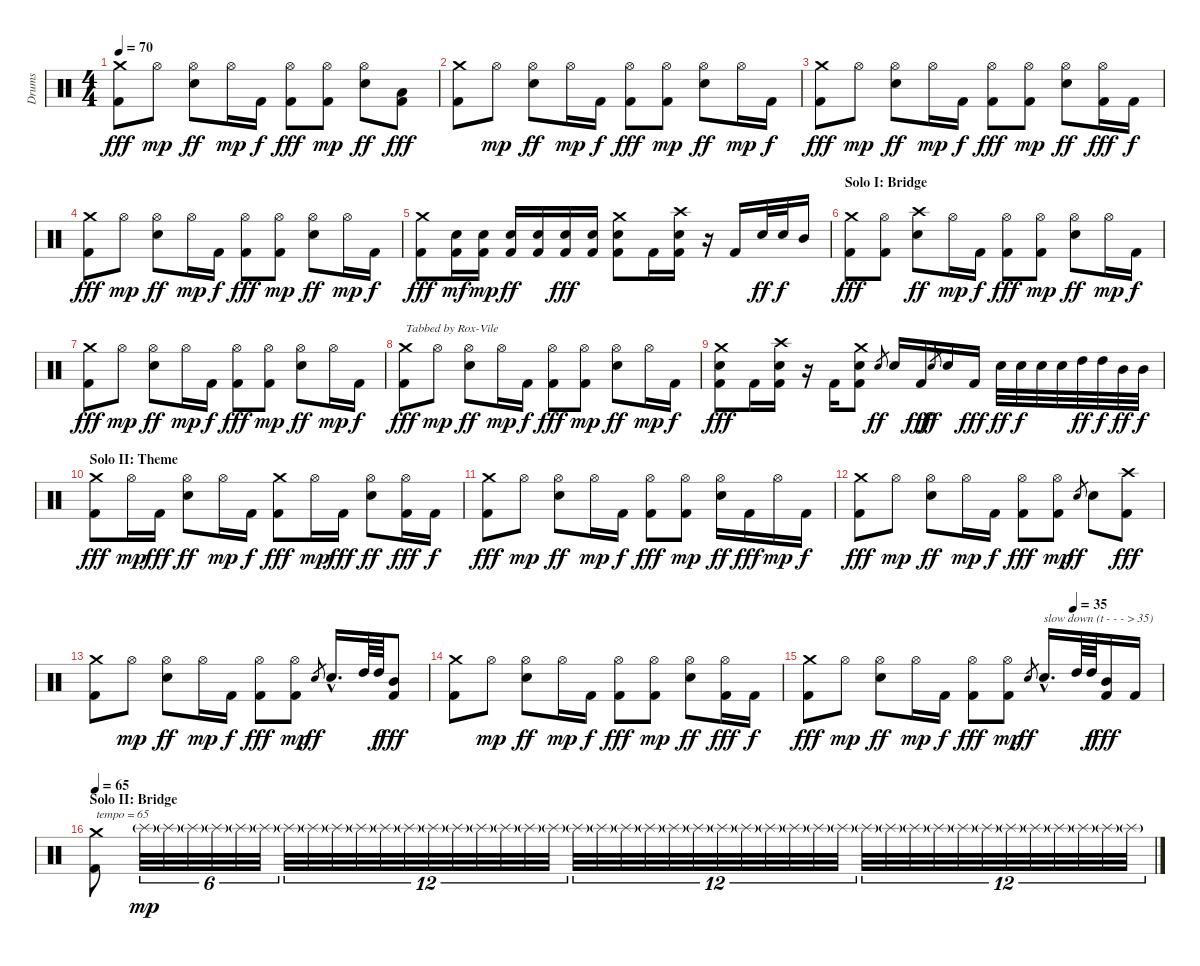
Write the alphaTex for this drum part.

\track ("Drums" "Drums") {instrument percussion}
\staff {score}
\articulation defaults
\ts (4 4)
\tempo 70
\clef neutral
\ks c
("Crash medium (hit)" "Kick (hit) 2").8{dy fff} "Hi-Hat (open)".8{dy mp} ("Hi-Hat (open)" "Snare (hit) 2").8{dy ff} "Hi-Hat (open)".16{dy mp} "Kick (hit) 2".16{dy f} ("Hi-Hat (open)" "Kick (hit) 2").8{dy fff} ("Hi-Hat (open)" "Kick (hit) 2").8{dy mp} ("Hi-Hat (open)" "Snare (hit) 2").8{dy ff} ("Low Tom (hit)" "Kick (hit) 2").8{dy fff} |
("Crash medium (hit)" "Kick (hit) 2").8 "Hi-Hat (open)".8{dy mp} ("Hi-Hat (open)" "Snare (hit) 2").8{dy ff} "Hi-Hat (open)".16{dy mp} "Kick (hit) 2".16{dy f} ("Hi-Hat (open)" "Kick (hit) 2").8{dy fff} ("Hi-Hat (open)" "Kick (hit) 2").8{dy mp} ("Hi-Hat (open)" "Snare (hit) 2").8{dy ff} "Hi-Hat (open)".16{dy mp} "Kick (hit) 2".16{dy f} |
("Crash medium (hit)" "Kick (hit) 2").8{dy fff} "Hi-Hat (open)".8{dy mp} ("Hi-Hat (open)" "Snare (hit) 2").8{dy ff} "Hi-Hat (open)".16{dy mp} "Kick (hit) 2".16{dy f} ("Hi-Hat (open)" "Kick (hit) 2").8{dy fff} ("Hi-Hat (open)" "Kick (hit) 2").8{dy mp} ("Hi-Hat (open)" "Snare (hit) 2").8{dy ff} ("Hi-Hat (open)" "Kick (hit) 2").16{dy fff} "Kick (hit) 2".16{dy f} |
("Crash medium (hit)" "Kick (hit) 2").8{dy fff} "Hi-Hat (open)".8{dy mp} ("Hi-Hat (open)" "Snare (hit) 2").8{dy ff} "Hi-Hat (open)".16{dy mp} "Kick (hit) 2".16{dy f} ("Hi-Hat (open)" "Kick (hit) 2").8{dy fff} ("Hi-Hat (open)" "Kick (hit) 2").8{dy mp} ("Hi-Hat (open)" "Snare (hit) 2").8{dy ff} "Hi-Hat (open)".16{dy mp} "Kick (hit) 2".16{dy f} |
("Crash medium (hit)" "Kick (hit) 2").8{dy fff} ("Snare (hit) 2" "Kick (hit) 2").16{dy mf} ("Snare (hit) 2" "Kick (hit) 2").16{dy mp} ("Snare (hit) 2" "Kick (hit) 2").16{dy ff} ("Snare (hit) 2" "Kick (hit) 2").16 ("Snare (hit) 2" "Kick (hit) 2").16{dy fff} ("Snare (hit) 2" "Kick (hit) 2").16 ("Crash medium (hit)" "Snare (hit) 2" "Kick (hit) 2").8 "Kick (hit) 2".16 ("Crash high (hit)" "Snare (hit) 2" "Kick (hit) 2").16 r.16 "Kick (hit) 2".16 "Snare (hit) 2".32{dy ff} "Snare (hit) 2".32{dy f} "Mid Tom (hit)".16 |
\section ("" "Solo I: Bridge")
("Crash medium (hit)" "Kick (hit) 2").8{dy fff} ("Hi-Hat (open)" "Kick (hit) 2").8 ("Crash high (hit)" "Snare (hit) 2").8{dy ff} "Hi-Hat (open)".16{dy mp} "Kick (hit) 2".16{dy f} ("Hi-Hat (open)" "Kick (hit) 2").8{dy fff} ("Hi-Hat (open)" "Kick (hit) 2").8{dy mp} ("Hi-Hat (open)" "Snare (hit) 2").8{dy ff} "Hi-Hat (open)".16{dy mp} "Kick (hit) 2".16{dy f} |
("Crash medium (hit)" "Kick (hit) 2").8{dy fff} "Hi-Hat (open)".8{dy mp} ("Hi-Hat (open)" "Snare (hit) 2").8{dy ff} "Hi-Hat (open)".16{dy mp} "Kick (hit) 2".16{dy f} ("Hi-Hat (open)" "Kick (hit) 2").8{dy fff} ("Hi-Hat (open)" "Kick (hit) 2").8{dy mp} ("Hi-Hat (open)" "Snare (hit) 2").8{dy ff} "Hi-Hat (open)".16{dy mp} "Kick (hit) 2".16{dy f} |
("Crash medium (hit)" "Kick (hit) 2").8{txt "Tabbed by Rox-Vile" dy fff} "Hi-Hat (open)".8{dy mp} ("Hi-Hat (open)" "Snare (hit) 2").8{dy ff} "Hi-Hat (open)".16{dy mp} "Kick (hit) 2".16{dy f} ("Hi-Hat (open)" "Kick (hit) 2").8{dy fff} ("Hi-Hat (open)" "Kick (hit) 2").8{dy mp} ("Hi-Hat (open)" "Snare (hit) 2").8{dy ff} "Hi-Hat (open)".16{dy mp} "Kick (hit) 2".16{dy f} |
("Crash medium (hit)" "Snare (hit) 2" "Kick (hit) 2").8{dy fff} "Kick (hit) 2".16 ("Crash high (hit)" "Snare (hit) 2" "Kick (hit) 2").16 r.16 "Kick (hit) 2".16 ("Crash medium (hit)" "Snare (hit) 2" "Kick (hit) 2").8 "Snare (hit) 2".8{gr dy ff} "Snare (hit) 2".16 "Kick (hit) 2".16{dy fff} "Snare (hit) 2".8{gr dy ff} "Snare (hit) 2".16 "Kick (hit) 2".16{dy fff} "Snare (hit) 2".32{dy ff} "Snare (hit) 2".32{dy f} "Snare (hit) 2".32 "Snare (hit) 2".32 "High Tom (hit)".32{dy ff} "High Tom (hit)".32{dy f} "Mid Tom (hit)".32{dy ff} "Mid Tom (hit)".32{dy f} |
\section ("" "Solo II: Theme")
("Crash medium (hit)" "Kick (hit) 2").8{dy fff} "Hi-Hat (open)".16{dy mp} "Kick (hit) 2".16{dy fff} ("Hi-Hat (open)" "Snare (hit) 2").8{dy ff} "Hi-Hat (open)".16{dy mp} "Kick (hit) 2".16{dy f} ("Crash medium (hit)" "Kick (hit) 2").8{dy fff} "Hi-Hat (open)".16{dy mp} "Kick (hit) 2".16{dy fff} ("Hi-Hat (open)" "Snare (hit) 2").8{dy ff} ("Hi-Hat (open)" "Kick (hit) 2").16{dy fff} "Kick (hit) 2".16{dy f} |
("Crash medium (hit)" "Kick (hit) 2").8{dy fff} "Hi-Hat (open)".8{dy mp} ("Hi-Hat (open)" "Snare (hit) 2").8{dy ff} "Hi-Hat (open)".16{dy mp} "Kick (hit) 2".16{dy f} ("Hi-Hat (open)" "Kick (hit) 2").8{dy fff} ("Hi-Hat (open)" "Kick (hit) 2").8{dy mp} ("Hi-Hat (open)" "Snare (hit) 2").16{dy ff} "Kick (hit) 2".16{dy fff} "Hi-Hat (open)".16{dy mp} "Kick (hit) 2".16{dy f} |
("Crash medium (hit)" "Kick (hit) 2").8{dy fff} "Hi-Hat (open)".8{dy mp} ("Hi-Hat (open)" "Snare (hit) 2").8{dy ff} "Hi-Hat (open)".16{dy mp} "Kick (hit) 2".16{dy f} ("Hi-Hat (open)" "Kick (hit) 2").8{dy fff} ("Hi-Hat (open)" "Kick (hit) 2").8{dy mp} "Snare (hit) 2".8{gr dy ff} "Snare (hit) 2".8 ("Crash high (hit)" "Kick (hit) 2").8{dy fff} |
("Crash medium (hit)" "Kick (hit) 2").8 "Hi-Hat (open)".8{dy mp} ("Hi-Hat (open)" "Snare (hit) 2").8{dy ff} "Hi-Hat (open)".16{dy mp} "Kick (hit) 2".16{dy f} ("Hi-Hat (open)" "Kick (hit) 2").8{dy fff} ("Hi-Hat (open)" "Kick (hit) 2").8{dy mp} "Snare (hit) 2".8{gr dy ff} "Snare (hit) 2"{hac}.16{d} "High Tom (hit)".64 "High Tom (hit)".64{dy f} ("Mid Tom (hit)" "Kick (hit) 2").8{dy fff} |
("Crash medium (hit)" "Kick (hit) 2").8 "Hi-Hat (open)".8{dy mp} ("Hi-Hat (open)" "Snare (hit) 2").8{dy ff} "Hi-Hat (open)".16{dy mp} "Kick (hit) 2".16{dy f} ("Hi-Hat (open)" "Kick (hit) 2").8{dy fff} ("Hi-Hat (open)" "Kick (hit) 2").8{dy mp} ("Hi-Hat (open)" "Snare (hit) 2").8{dy ff} ("Hi-Hat (open)" "Kick (hit) 2").16{dy fff} "Kick (hit) 2".16{dy f} |
\tempo (35 0.75)
("Crash medium (hit)" "Kick (hit) 2").8{dy fff} "Hi-Hat (open)".8{dy mp} ("Hi-Hat (open)" "Snare (hit) 2").8{dy ff} "Hi-Hat (open)".16{dy mp} "Kick (hit) 2".16{dy f} ("Hi-Hat (open)" "Kick (hit) 2").8{dy fff} ("Hi-Hat (open)" "Kick (hit) 2").8{dy mp} "Snare (hit) 2".8{gr dy ff} "Snare (hit) 2"{hac}.16{d txt "slow down (t - - - > 35)"} "High Tom (hit)".64 "High Tom (hit)".64{dy f} ("Mid Tom (hit)" "Kick (hit) 2").16{dy fff} "Kick (hit) 2".16 |
\section ("" "Solo II: Bridge")
\tempo 65
("Crash medium (hit)" "Kick (hit) 2").8{txt "tempo = 65"} "Splash (hit)"{g}.32{tu (6 4) dy mp} "Splash (hit)"{g}.32{tu (6 4)} "Splash (hit)"{g}.32{tu (6 4)} "Splash (hit)"{g}.32{tu (6 4)} "Splash (hit)"{g}.32{tu (6 4)} "Splash (hit)"{g}.32{tu (6 4)} "Splash (hit)"{g}.32{tu (12 8)} "Splash (hit)"{g}.32{tu (12 8)} "Splash (hit)"{g}.32{tu (12 8)} "Splash (hit)"{g}.32{tu (12 8)} "Splash (hit)"{g}.32{tu (12 8)} "Splash (hit)"{g}.32{tu (12 8)} "Splash (hit)"{g}.32{tu (12 8)} "Splash (hit)"{g}.32{tu (12 8)} "Splash (hit)"{g}.32{tu (12 8)} "Splash (hit)"{g}.32{tu (12 8)} "Splash (hit)"{g}.32{tu (12 8)} "Splash (hit)"{g}.32{tu (12 8)} "Splash (hit)"{g}.32{tu (12 8)} "Splash (hit)"{g}.32{tu (12 8)} "Splash (hit)"{g}.32{tu (12 8)} "Splash (hit)"{g}.32{tu (12 8)} "Splash (hit)"{g}.32{tu (12 8)} "Splash (hit)"{g}.32{tu (12 8)} "Splash (hit)"{g}.32{tu (12 8)} "Splash (hit)"{g}.32{tu (12 8)} "Splash (hit)"{g}.32{tu (12 8)} "Splash (hit)"{g}.32{tu (12 8)} "Splash (hit)"{g}.32{tu (12 8)} "Splash (hit)"{g}.32{tu (12 8)} "Splash (hit)"{g}.32{tu (12 8)} "Splash (hit)"{g}.32{tu (12 8)} "Splash (hit)"{g}.32{tu (12 8)} "Splash (hit)"{g}.32{tu (12 8)} "Splash (hit)"{g}.32{tu (12 8)} "Splash (hit)"{g}.32{tu (12 8)} "Splash (hit)"{g}.32{tu (12 8)} "Splash (hit)"{g}.32{tu (12 8)} "Splash (hit)"{g}.32{tu (12 8)} "Splash (hit)"{g}.32{tu (12 8)} "Splash (hit)"{g}.32{tu (12 8)} "Splash (hit)"{g}.32{tu (12 8)}
